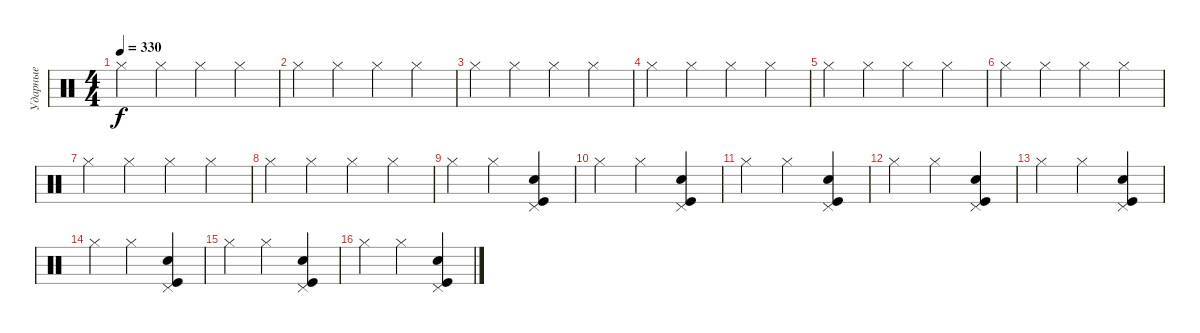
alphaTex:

\track ("Ударные" "Ударные") {instrument percussion}
\staff {score}
\articulation defaults
\ts (4 4)
\tempo 330
\clef neutral
\ks c "Hi-Hat (closed)".4{dy f} "Hi-Hat (closed)".4 "Hi-Hat (closed)".4 "Hi-Hat (closed)".4
|
"Hi-Hat (closed)".4 "Hi-Hat (closed)".4 "Hi-Hat (closed)".4 "Hi-Hat (closed)".4 |
"Hi-Hat (closed)".4 "Hi-Hat (closed)".4 "Hi-Hat (closed)".4 "Hi-Hat (closed)".4 |
"Hi-Hat (closed)".4 "Hi-Hat (closed)".4 "Hi-Hat (closed)".4 "Hi-Hat (closed)".4 |
"Hi-Hat (closed)".4 "Hi-Hat (closed)".4 "Hi-Hat (closed)".4 "Hi-Hat (closed)".4 |
"Hi-Hat (closed)".4 "Hi-Hat (closed)".4 "Hi-Hat (closed)".4 "Hi-Hat (closed)".4 |
"Hi-Hat (closed)".4 "Hi-Hat (closed)".4 "Hi-Hat (closed)".4 "Hi-Hat (closed)".4 |
"Hi-Hat (closed)".4 "Hi-Hat (closed)".4 "Hi-Hat (closed)".4 "Hi-Hat (closed)".4 |
"Hi-Hat (closed)".4 "Hi-Hat (closed)".4 ("Kick (hit)" "Snare (hit) 2" "Pedal Hi-Hat (hit)").4 |
"Hi-Hat (closed)".4 "Hi-Hat (closed)".4 ("Kick (hit)" "Snare (hit) 2" "Pedal Hi-Hat (hit)").4 |
"Hi-Hat (closed)".4 "Hi-Hat (closed)".4 ("Kick (hit)" "Snare (hit) 2" "Pedal Hi-Hat (hit)").4 |
"Hi-Hat (closed)".4 "Hi-Hat (closed)".4 ("Kick (hit)" "Snare (hit) 2" "Pedal Hi-Hat (hit)").4 |
"Hi-Hat (closed)".4 "Hi-Hat (closed)".4 ("Kick (hit)" "Snare (hit) 2" "Pedal Hi-Hat (hit)").4 |
"Hi-Hat (closed)".4 "Hi-Hat (closed)".4 ("Kick (hit)" "Snare (hit) 2" "Pedal Hi-Hat (hit)").4 |
"Hi-Hat (closed)".4 "Hi-Hat (closed)".4 ("Kick (hit)" "Snare (hit) 2" "Pedal Hi-Hat (hit)").4 |
"Hi-Hat (closed)".4 "Hi-Hat (closed)".4 ("Kick (hit)" "Snare (hit) 2" "Pedal Hi-Hat (hit)").4
